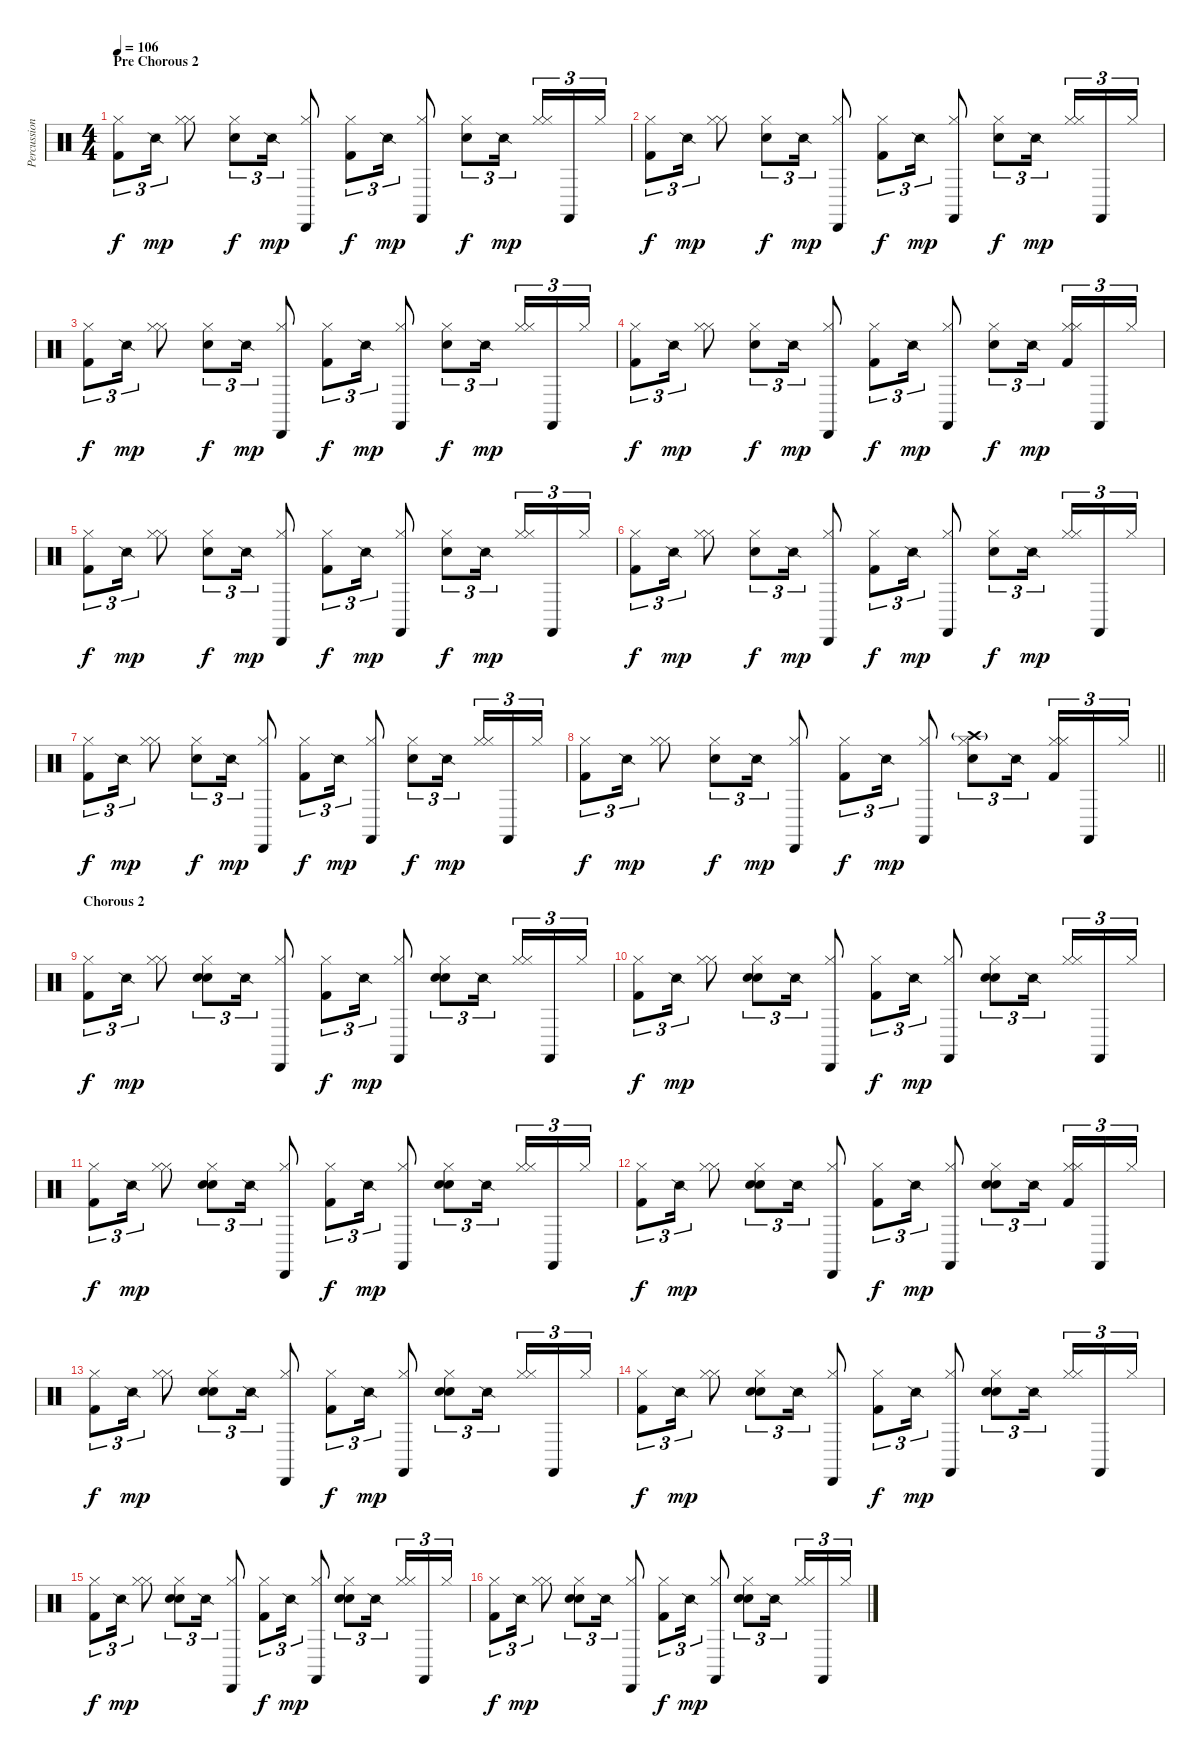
\track ("Percussion" "Percussion") {instrument percussion}
\staff {score}
\articulation defaults
\ts (4 4)
\section ("" "Pre Chorous 2")
\tempo 106
\clef neutral
\ks c
("Hi-Hat (closed)" "Kick (hit) 2").8{tu (3 2) dy f} "Snare (side stick) 2".16{tu (3 2) dy mp} ("Hi-Hat (closed)" "Hi-Hat (closed)").8 ("Hi-Hat (closed)" "Electric Snare (hit)").8{tu (3 2) dy f} "Snare (side stick) 2".16{tu (3 2) dy mp} ("Hi-Hat (closed)" "Cabasa (hit)").8 ("Hi-Hat (closed)" "Kick (hit) 2").8{tu (3 2) dy f} "Snare (side stick) 2".16{tu (3 2) dy mp} ("Hi-Hat (closed)" "Castanets (hit)").8 ("Hi-Hat (closed)" "Electric Snare (hit)").8{tu (3 2) dy f} "Snare (side stick) 2".16{tu (3 2) dy mp beam splitsecondary} ("Hi-Hat (closed)" "Hi-Hat (closed)").16{tu (3 2)} "Castanets (hit)".16{tu (3 2)} "Hi-Hat (closed)".16{tu (3 2)} |
("Hi-Hat (closed)" "Kick (hit) 2").8{tu (3 2) dy f} "Snare (side stick) 2".16{tu (3 2) dy mp} ("Hi-Hat (closed)" "Hi-Hat (closed)").8 ("Hi-Hat (closed)" "Electric Snare (hit)").8{tu (3 2) dy f} "Snare (side stick) 2".16{tu (3 2) dy mp} ("Hi-Hat (closed)" "Cabasa (hit)").8 ("Hi-Hat (closed)" "Kick (hit) 2").8{tu (3 2) dy f} "Snare (side stick) 2".16{tu (3 2) dy mp} ("Hi-Hat (closed)" "Castanets (hit)").8 ("Hi-Hat (closed)" "Electric Snare (hit)").8{tu (3 2) dy f} "Snare (side stick) 2".16{tu (3 2) dy mp beam splitsecondary} ("Hi-Hat (closed)" "Hi-Hat (closed)").16{tu (3 2)} "Castanets (hit)".16{tu (3 2)} "Hi-Hat (closed)".16{tu (3 2)} |
("Hi-Hat (closed)" "Kick (hit) 2").8{tu (3 2) dy f} "Snare (side stick) 2".16{tu (3 2) dy mp} ("Hi-Hat (closed)" "Hi-Hat (closed)").8 ("Hi-Hat (closed)" "Electric Snare (hit)").8{tu (3 2) dy f} "Snare (side stick) 2".16{tu (3 2) dy mp} ("Hi-Hat (closed)" "Cabasa (hit)").8 ("Hi-Hat (closed)" "Kick (hit) 2").8{tu (3 2) dy f} "Snare (side stick) 2".16{tu (3 2) dy mp} ("Hi-Hat (closed)" "Castanets (hit)").8 ("Hi-Hat (closed)" "Electric Snare (hit)").8{tu (3 2) dy f} "Snare (side stick) 2".16{tu (3 2) dy mp beam splitsecondary} ("Hi-Hat (closed)" "Hi-Hat (closed)").16{tu (3 2)} "Castanets (hit)".16{tu (3 2)} "Hi-Hat (closed)".16{tu (3 2)} |
("Hi-Hat (closed)" "Kick (hit) 2").8{tu (3 2) dy f} "Snare (side stick) 2".16{tu (3 2) dy mp} ("Hi-Hat (closed)" "Hi-Hat (closed)").8 ("Hi-Hat (closed)" "Electric Snare (hit)").8{tu (3 2) dy f} "Snare (side stick) 2".16{tu (3 2) dy mp} ("Hi-Hat (closed)" "Cabasa (hit)").8 ("Hi-Hat (closed)" "Kick (hit) 2").8{tu (3 2) dy f} "Snare (side stick) 2".16{tu (3 2) dy mp} ("Hi-Hat (closed)" "Castanets (hit)").8 ("Hi-Hat (closed)" "Electric Snare (hit)").8{tu (3 2) dy f} "Snare (side stick) 2".16{tu (3 2) dy mp beam splitsecondary} ("Hi-Hat (closed)" "Hi-Hat (closed)" "Kick (hit) 2").16{tu (3 2)} "Castanets (hit)".16{tu (3 2)} "Hi-Hat (closed)".16{tu (3 2)} |
("Hi-Hat (closed)" "Kick (hit) 2").8{tu (3 2) dy f} "Snare (side stick) 2".16{tu (3 2) dy mp} ("Hi-Hat (closed)" "Hi-Hat (closed)").8 ("Hi-Hat (closed)" "Electric Snare (hit)").8{tu (3 2) dy f} "Snare (side stick) 2".16{tu (3 2) dy mp} ("Hi-Hat (closed)" "Cabasa (hit)").8 ("Hi-Hat (closed)" "Kick (hit) 2").8{tu (3 2) dy f} "Snare (side stick) 2".16{tu (3 2) dy mp} ("Hi-Hat (closed)" "Castanets (hit)").8 ("Hi-Hat (closed)" "Electric Snare (hit)").8{tu (3 2) dy f} "Snare (side stick) 2".16{tu (3 2) dy mp beam splitsecondary} ("Hi-Hat (closed)" "Hi-Hat (closed)").16{tu (3 2)} "Castanets (hit)".16{tu (3 2)} "Hi-Hat (closed)".16{tu (3 2)} |
("Hi-Hat (closed)" "Kick (hit) 2").8{tu (3 2) dy f} "Snare (side stick) 2".16{tu (3 2) dy mp} ("Hi-Hat (closed)" "Hi-Hat (closed)").8 ("Hi-Hat (closed)" "Electric Snare (hit)").8{tu (3 2) dy f} "Snare (side stick) 2".16{tu (3 2) dy mp} ("Hi-Hat (closed)" "Cabasa (hit)").8 ("Hi-Hat (closed)" "Kick (hit) 2").8{tu (3 2) dy f} "Snare (side stick) 2".16{tu (3 2) dy mp} ("Hi-Hat (closed)" "Castanets (hit)").8 ("Hi-Hat (closed)" "Electric Snare (hit)").8{tu (3 2) dy f} "Snare (side stick) 2".16{tu (3 2) dy mp beam splitsecondary} ("Hi-Hat (closed)" "Hi-Hat (closed)").16{tu (3 2)} "Castanets (hit)".16{tu (3 2)} "Hi-Hat (closed)".16{tu (3 2)} |
("Hi-Hat (closed)" "Kick (hit) 2").8{tu (3 2) dy f} "Snare (side stick) 2".16{tu (3 2) dy mp} ("Hi-Hat (closed)" "Hi-Hat (closed)").8 ("Hi-Hat (closed)" "Electric Snare (hit)").8{tu (3 2) dy f} "Snare (side stick) 2".16{tu (3 2) dy mp} ("Hi-Hat (closed)" "Cabasa (hit)").8 ("Hi-Hat (closed)" "Kick (hit) 2").8{tu (3 2) dy f} "Snare (side stick) 2".16{tu (3 2) dy mp} ("Hi-Hat (closed)" "Castanets (hit)").8 ("Hi-Hat (closed)" "Electric Snare (hit)").8{tu (3 2) dy f} "Snare (side stick) 2".16{tu (3 2) dy mp beam splitsecondary} ("Hi-Hat (closed)" "Hi-Hat (closed)").16{tu (3 2)} "Castanets (hit)".16{tu (3 2)} "Hi-Hat (closed)".16{tu (3 2)} |
\barLineRight lightlight
("Hi-Hat (closed)" "Kick (hit) 2").8{tu (3 2) dy f} "Snare (side stick) 2".16{tu (3 2) dy mp} ("Hi-Hat (closed)" "Hi-Hat (closed)").8 ("Hi-Hat (closed)" "Electric Snare (hit)").8{tu (3 2) dy f} "Snare (side stick) 2".16{tu (3 2) dy mp} ("Hi-Hat (closed)" "Cabasa (hit)").8 ("Hi-Hat (closed)" "Kick (hit) 2").8{tu (3 2) dy f} "Snare (side stick) 2".16{tu (3 2) dy mp} ("Hi-Hat (closed)" "Castanets (hit)").8 ("Crash high (hit)"{g} "Hi-Hat (closed)" "Electric Snare (hit)").8{tu (3 2)} "Snare (side stick) 2".16{tu (3 2) beam splitsecondary} ("Hi-Hat (closed)" "Hi-Hat (closed)" "Kick (hit) 2").16{tu (3 2)} "Castanets (hit)".16{tu (3 2)} "Hi-Hat (closed)".16{tu (3 2)} |
\section ("" "Chorous 2")
("Hi-Hat (closed)" "Kick (hit) 2").8{tu (3 2) dy f} "Snare (side stick) 2".16{tu (3 2) dy mp} ("Hi-Hat (closed)" "Hi-Hat (closed)").8 ("Hand Clap (hit)" "Hi-Hat (closed)" "Electric Snare (hit)").8{tu (3 2)} "Snare (side stick) 2".16{tu (3 2)} ("Hi-Hat (closed)" "Cabasa (hit)").8 ("Hi-Hat (closed)" "Kick (hit) 2").8{tu (3 2) dy f} "Snare (side stick) 2".16{tu (3 2) dy mp} ("Hi-Hat (closed)" "Castanets (hit)").8 ("Hand Clap (hit)" "Hi-Hat (closed)" "Electric Snare (hit)").8{tu (3 2)} "Snare (side stick) 2".16{tu (3 2) beam splitsecondary} ("Hi-Hat (closed)" "Hi-Hat (closed)").16{tu (3 2)} "Castanets (hit)".16{tu (3 2)} "Hi-Hat (closed)".16{tu (3 2)} |
("Hi-Hat (closed)" "Kick (hit) 2").8{tu (3 2) dy f} "Snare (side stick) 2".16{tu (3 2) dy mp} ("Hi-Hat (closed)" "Hi-Hat (closed)").8 ("Hand Clap (hit)" "Hi-Hat (closed)" "Electric Snare (hit)").8{tu (3 2)} "Snare (side stick) 2".16{tu (3 2)} ("Hi-Hat (closed)" "Cabasa (hit)").8 ("Hi-Hat (closed)" "Kick (hit) 2").8{tu (3 2) dy f} "Snare (side stick) 2".16{tu (3 2) dy mp} ("Hi-Hat (closed)" "Castanets (hit)").8 ("Hand Clap (hit)" "Hi-Hat (closed)" "Electric Snare (hit)").8{tu (3 2)} "Snare (side stick) 2".16{tu (3 2) beam splitsecondary} ("Hi-Hat (closed)" "Hi-Hat (closed)").16{tu (3 2)} "Castanets (hit)".16{tu (3 2)} "Hi-Hat (closed)".16{tu (3 2)} |
("Hi-Hat (closed)" "Kick (hit) 2").8{tu (3 2) dy f} "Snare (side stick) 2".16{tu (3 2) dy mp} ("Hi-Hat (closed)" "Hi-Hat (closed)").8 ("Hand Clap (hit)" "Hi-Hat (closed)" "Electric Snare (hit)").8{tu (3 2)} "Snare (side stick) 2".16{tu (3 2)} ("Hi-Hat (closed)" "Cabasa (hit)").8 ("Hi-Hat (closed)" "Kick (hit) 2").8{tu (3 2) dy f} "Snare (side stick) 2".16{tu (3 2) dy mp} ("Hi-Hat (closed)" "Castanets (hit)").8 ("Hand Clap (hit)" "Hi-Hat (closed)" "Electric Snare (hit)").8{tu (3 2)} "Snare (side stick) 2".16{tu (3 2) beam splitsecondary} ("Hi-Hat (closed)" "Hi-Hat (closed)").16{tu (3 2)} "Castanets (hit)".16{tu (3 2)} "Hi-Hat (closed)".16{tu (3 2)} |
("Hi-Hat (closed)" "Kick (hit) 2").8{tu (3 2) dy f} "Snare (side stick) 2".16{tu (3 2) dy mp} ("Hi-Hat (closed)" "Hi-Hat (closed)").8 ("Hand Clap (hit)" "Hi-Hat (closed)" "Electric Snare (hit)").8{tu (3 2)} "Snare (side stick) 2".16{tu (3 2)} ("Hi-Hat (closed)" "Cabasa (hit)").8 ("Hi-Hat (closed)" "Kick (hit) 2").8{tu (3 2) dy f} "Snare (side stick) 2".16{tu (3 2) dy mp} ("Hi-Hat (closed)" "Castanets (hit)").8 ("Hand Clap (hit)" "Hi-Hat (closed)" "Electric Snare (hit)").8{tu (3 2)} "Snare (side stick) 2".16{tu (3 2) beam splitsecondary} ("Hi-Hat (closed)" "Hi-Hat (closed)" "Kick (hit) 2").16{tu (3 2)} "Castanets (hit)".16{tu (3 2)} "Hi-Hat (closed)".16{tu (3 2)} |
("Hi-Hat (closed)" "Kick (hit) 2").8{tu (3 2) dy f} "Snare (side stick) 2".16{tu (3 2) dy mp} ("Hi-Hat (closed)" "Hi-Hat (closed)").8 ("Hand Clap (hit)" "Hi-Hat (closed)" "Electric Snare (hit)").8{tu (3 2)} "Snare (side stick) 2".16{tu (3 2)} ("Hi-Hat (closed)" "Cabasa (hit)").8 ("Hi-Hat (closed)" "Kick (hit) 2").8{tu (3 2) dy f} "Snare (side stick) 2".16{tu (3 2) dy mp} ("Hi-Hat (closed)" "Castanets (hit)").8 ("Hand Clap (hit)" "Hi-Hat (closed)" "Electric Snare (hit)").8{tu (3 2)} "Snare (side stick) 2".16{tu (3 2) beam splitsecondary} ("Hi-Hat (closed)" "Hi-Hat (closed)").16{tu (3 2)} "Castanets (hit)".16{tu (3 2)} "Hi-Hat (closed)".16{tu (3 2)} |
("Hi-Hat (closed)" "Kick (hit) 2").8{tu (3 2) dy f} "Snare (side stick) 2".16{tu (3 2) dy mp} ("Hi-Hat (closed)" "Hi-Hat (closed)").8 ("Hand Clap (hit)" "Hi-Hat (closed)" "Electric Snare (hit)").8{tu (3 2)} "Snare (side stick) 2".16{tu (3 2)} ("Hi-Hat (closed)" "Cabasa (hit)").8 ("Hi-Hat (closed)" "Kick (hit) 2").8{tu (3 2) dy f} "Snare (side stick) 2".16{tu (3 2) dy mp} ("Hi-Hat (closed)" "Castanets (hit)").8 ("Hand Clap (hit)" "Hi-Hat (closed)" "Electric Snare (hit)").8{tu (3 2)} "Snare (side stick) 2".16{tu (3 2) beam splitsecondary} ("Hi-Hat (closed)" "Hi-Hat (closed)").16{tu (3 2)} "Castanets (hit)".16{tu (3 2)} "Hi-Hat (closed)".16{tu (3 2)} |
("Hi-Hat (closed)" "Kick (hit) 2").8{tu (3 2) dy f} "Snare (side stick) 2".16{tu (3 2) dy mp} ("Hi-Hat (closed)" "Hi-Hat (closed)").8 ("Hand Clap (hit)" "Hi-Hat (closed)" "Electric Snare (hit)").8{tu (3 2)} "Snare (side stick) 2".16{tu (3 2)} ("Hi-Hat (closed)" "Cabasa (hit)").8 ("Hi-Hat (closed)" "Kick (hit) 2").8{tu (3 2) dy f} "Snare (side stick) 2".16{tu (3 2) dy mp} ("Hi-Hat (closed)" "Castanets (hit)").8 ("Hand Clap (hit)" "Hi-Hat (closed)" "Electric Snare (hit)").8{tu (3 2)} "Snare (side stick) 2".16{tu (3 2) beam splitsecondary} ("Hi-Hat (closed)" "Hi-Hat (closed)").16{tu (3 2)} "Castanets (hit)".16{tu (3 2)} "Hi-Hat (closed)".16{tu (3 2)} |
("Hi-Hat (closed)" "Kick (hit) 2").8{tu (3 2) dy f} "Snare (side stick) 2".16{tu (3 2) dy mp} ("Hi-Hat (closed)" "Hi-Hat (closed)").8 ("Hand Clap (hit)" "Hi-Hat (closed)" "Electric Snare (hit)").8{tu (3 2)} "Snare (side stick) 2".16{tu (3 2)} ("Hi-Hat (closed)" "Cabasa (hit)").8 ("Hi-Hat (closed)" "Kick (hit) 2").8{tu (3 2) dy f} "Snare (side stick) 2".16{tu (3 2) dy mp} ("Hi-Hat (closed)" "Castanets (hit)").8 ("Hand Clap (hit)" "Hi-Hat (closed)" "Electric Snare (hit)").8{tu (3 2)} "Snare (side stick) 2".16{tu (3 2) beam splitsecondary} ("Hi-Hat (closed)" "Hi-Hat (closed)").16{tu (3 2)} "Castanets (hit)".16{tu (3 2)} "Hi-Hat (closed)".16{tu (3 2)}
